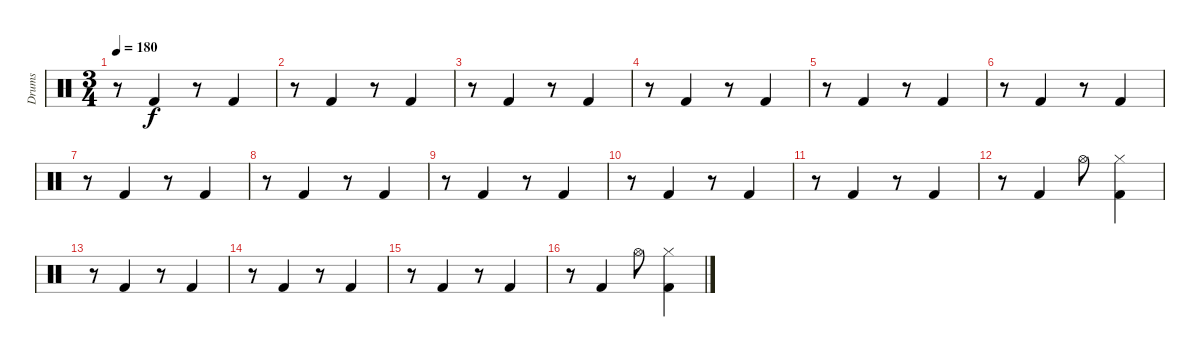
\track ("Drums" "Drums") {instrument percussion}
\staff {score}
\articulation defaults
\ts (3 4)
\tempo 180
\clef neutral
\ks c
r.8{dy f} "Kick (hit) 2".4 r.8 "Kick (hit) 2".4 |
r.8 "Kick (hit) 2".4 r.8 "Kick (hit) 2".4 |
r.8 "Kick (hit) 2".4 r.8 "Kick (hit) 2".4 |
r.8 "Kick (hit) 2".4 r.8 "Kick (hit) 2".4 |
r.8 "Kick (hit) 2".4 r.8 "Kick (hit) 2".4 |
r.8 "Kick (hit) 2".4 r.8 "Kick (hit) 2".4 |
r.8 "Kick (hit) 2".4 r.8 "Kick (hit) 2".4 |
r.8 "Kick (hit) 2".4 r.8 "Kick (hit) 2".4 |
r.8 "Kick (hit) 2".4 r.8 "Kick (hit) 2".4 |
r.8 "Kick (hit) 2".4 r.8 "Kick (hit) 2".4 |
r.8 "Kick (hit) 2".4 r.8 "Kick (hit) 2".4 |
r.8 "Kick (hit) 2".4 "Hi-Hat (open)".8 ("Hi-Hat (closed)" "Kick (hit) 2").4 |
r.8 "Kick (hit) 2".4 r.8 "Kick (hit) 2".4 |
r.8 "Kick (hit) 2".4 r.8 "Kick (hit) 2".4 |
r.8 "Kick (hit) 2".4 r.8 "Kick (hit) 2".4 |
r.8 "Kick (hit) 2".4 "Hi-Hat (open)".8 ("Hi-Hat (closed)" "Kick (hit) 2").4
